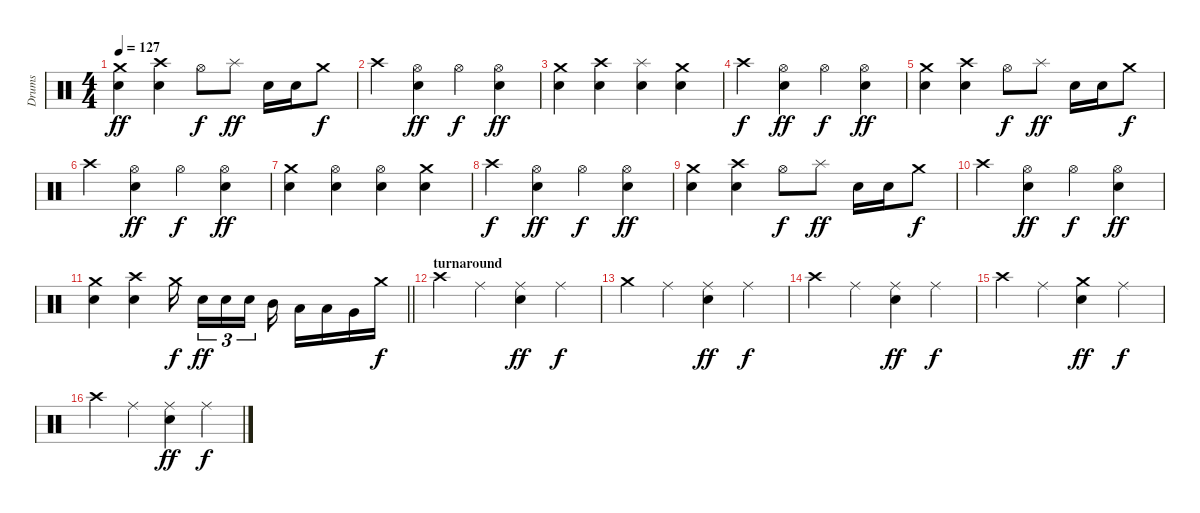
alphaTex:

\track ("Drums" "Drums") {instrument percussion}
\staff {score}
\articulation defaults
\ts (4 4)
\tempo 127
\clef neutral
\ks c
("Crash medium (hit)" "Snare (hit) 2").4{dy ff} ("Crash high (hit)" "Snare (hit) 2").4 "Hi-Hat (open)".8{dy f} "Splash (hit)".8{dy ff} "Snare (hit) 2".16 "Snare (hit) 2".16 "Crash medium (hit)".8{dy f} |
"Crash high (hit)".4 ("Hi-Hat (open)" "Snare (hit) 2").4{dy ff} "Hi-Hat (open)".4{dy f} ("Hi-Hat (open)" "Snare (hit) 2").4{dy ff} |
("Crash medium (hit)" "Snare (hit) 2").4 ("Crash high (hit)" "Snare (hit) 2").4 ("Splash (hit)" "Snare (hit) 2").4 ("Crash medium (hit)" "Snare (hit) 2").4 |
"Crash high (hit)".4{dy f} ("Hi-Hat (open)" "Snare (hit) 2").4{dy ff} "Hi-Hat (open)".4{dy f} ("Hi-Hat (open)" "Snare (hit) 2").4{dy ff} |
("Crash medium (hit)" "Snare (hit) 2").4 ("Crash high (hit)" "Snare (hit) 2").4 "Hi-Hat (open)".8{dy f} "Splash (hit)".8{dy ff} "Snare (hit) 2".16 "Snare (hit) 2".16 "Crash medium (hit)".8{dy f} |
"Crash high (hit)".4 ("Hi-Hat (open)" "Snare (hit) 2").4{dy ff} "Hi-Hat (open)".4{dy f} ("Hi-Hat (open)" "Snare (hit) 2").4{dy ff} |
("Crash medium (hit)" "Snare (hit) 2").4 ("Hi-Hat (open)" "Snare (hit) 2").4 ("Hi-Hat (open)" "Snare (hit) 2").4 ("Crash medium (hit)" "Snare (hit) 2").4 |
"Crash high (hit)".4{dy f} ("Hi-Hat (open)" "Snare (hit) 2").4{dy ff} "Hi-Hat (open)".4{dy f} ("Hi-Hat (open)" "Snare (hit) 2").4{dy ff} |
("Crash medium (hit)" "Snare (hit) 2").4 ("Crash high (hit)" "Snare (hit) 2").4 "Hi-Hat (open)".8{dy f} "Splash (hit)".8{dy ff} "Snare (hit) 2".16 "Snare (hit) 2".16 "Crash medium (hit)".8{dy f} |
"Crash high (hit)".4 ("Hi-Hat (open)" "Snare (hit) 2").4{dy ff} "Hi-Hat (open)".4{dy f} ("Hi-Hat (open)" "Snare (hit) 2").4{dy ff} |
\barLineRight lightlight
("Crash medium (hit)" "Snare (hit) 2").4 ("Crash high (hit)" "Snare (hit) 2").4 "Crash medium (hit)".16{dy f beam splitsecondary} "Snare (hit) 2".16{tu (3 2) dy ff} "Snare (hit) 2".16{tu (3 2)} "Snare (hit) 2".16{tu (3 2) beam splitsecondary} "Mid Tom (hit)".16 "Low Tom (hit)".16 "Low Tom (hit)".16 "Very Low Tom (hit)".16 "Crash medium (hit)".16{dy f} |
\section ("" "turnaround")
"Crash high (hit)".4 "Ride (middle)".4 ("Ride (middle)" "Snare (hit) 2").4{dy ff} "Ride (middle)".4{dy f} |
"Crash medium (hit)".4 "Ride (middle)".4 ("Ride (middle)" "Snare (hit) 2").4{dy ff} "Ride (middle)".4{dy f} |
"Crash high (hit)".4 "Ride (middle)".4 ("Ride (middle)" "Snare (hit) 2").4{dy ff} "Ride (middle)".4{dy f} |
"Crash high (hit)".4 "Ride (middle)".4 ("Crash medium (hit)" "Snare (hit) 2").4{dy ff} "Ride (middle)".4{dy f} |
"Crash high (hit)".4 "Ride (middle)".4 ("Ride (middle)" "Snare (hit) 2").4{dy ff} "Ride (middle)".4{dy f}
